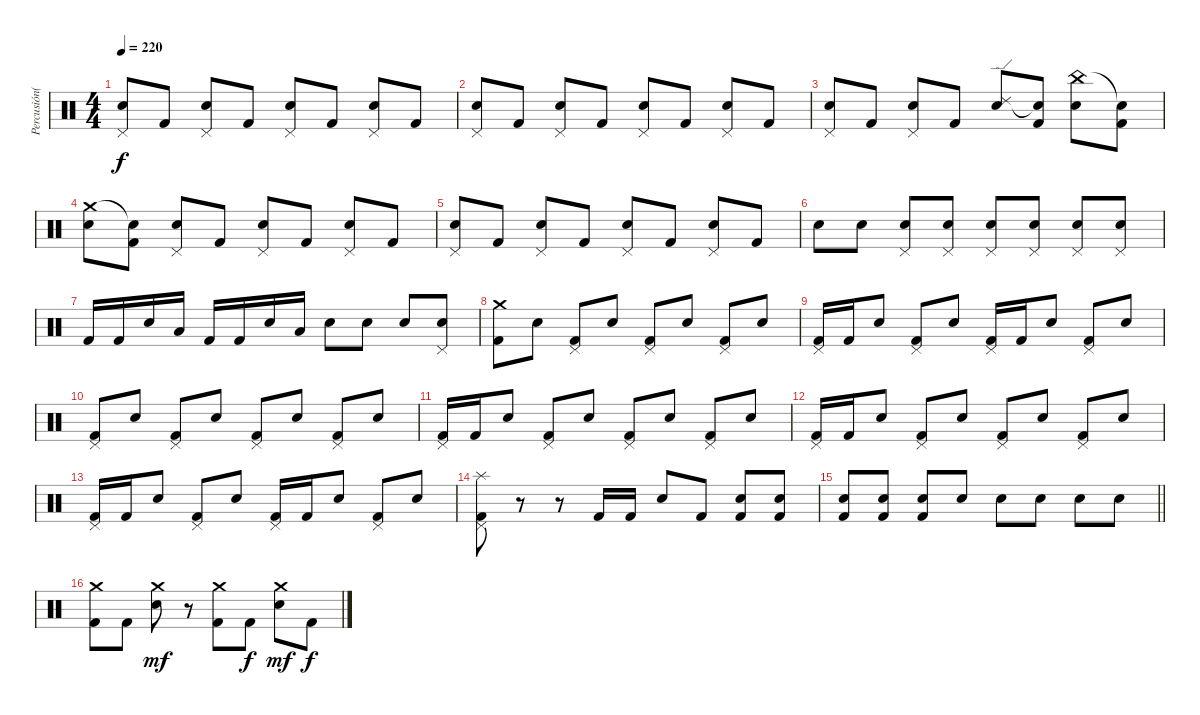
\track ("Percusión(Brett Powell)" "Percusión(") {instrument percussion}
\staff {score}
\articulation defaults
\ts (4 4)
\tempo 220
\clef neutral
\ks c
("Pedal Hi-Hat (hit)" "Electric Snare (hit)").8{dy f} "Kick (hit) 2".8 ("Pedal Hi-Hat (hit)" "Electric Snare (hit)").8 "Kick (hit) 2".8 ("Pedal Hi-Hat (hit)" "Electric Snare (hit)").8 "Kick (hit) 2".8 ("Pedal Hi-Hat (hit)" "Electric Snare (hit)").8 "Kick (hit) 2".8 |
("Pedal Hi-Hat (hit)" "Electric Snare (hit)").8 "Kick (hit) 2".8 ("Pedal Hi-Hat (hit)" "Electric Snare (hit)").8 "Kick (hit) 2".8 ("Pedal Hi-Hat (hit)" "Electric Snare (hit)").8 "Kick (hit) 2".8 ("Pedal Hi-Hat (hit)" "Electric Snare (hit)").8 "Kick (hit) 2".8 |
("Pedal Hi-Hat (hit)" "Electric Snare (hit)").8 "Kick (hit) 2".8 ("Pedal Hi-Hat (hit)" "Electric Snare (hit)").8 "Kick (hit) 2".8 ("Ride (edge) 2" "Electric Snare (hit)").8 ("Snare (hit)"{t} "Kick (hit) 2").8 ("China (hit)" "Electric Snare (hit)").8 ("Snare (hit)"{t} "Kick (hit) 2").8 |
("Crash medium (hit)" "Electric Snare (hit)").8 ("Snare (hit)"{t} "Kick (hit) 2").8 ("Pedal Hi-Hat (hit)" "Electric Snare (hit)").8 "Kick (hit) 2".8 ("Pedal Hi-Hat (hit)" "Electric Snare (hit)").8 "Kick (hit) 2".8 ("Pedal Hi-Hat (hit)" "Electric Snare (hit)").8 "Kick (hit) 2".8 |
("Pedal Hi-Hat (hit)" "Electric Snare (hit)").8 "Kick (hit) 2".8 ("Pedal Hi-Hat (hit)" "Electric Snare (hit)").8 "Kick (hit) 2".8 ("Pedal Hi-Hat (hit)" "Electric Snare (hit)").8 "Kick (hit) 2".8 ("Pedal Hi-Hat (hit)" "Electric Snare (hit)").8 "Kick (hit) 2".8 |
"Electric Snare (hit)".8 "Electric Snare (hit)".8 ("Pedal Hi-Hat (hit)" "Electric Snare (hit)").8 ("Pedal Hi-Hat (hit)" "Electric Snare (hit)").8 ("Pedal Hi-Hat (hit)" "Electric Snare (hit)").8 ("Pedal Hi-Hat (hit)" "Electric Snare (hit)").8 ("Pedal Hi-Hat (hit)" "Electric Snare (hit)").8 ("Pedal Hi-Hat (hit)" "Electric Snare (hit)").8 |
"Kick (hit) 2".16 "Kick (hit) 2".16 "Electric Snare (hit)".16 "Low Tom (hit)".16 "Kick (hit) 2".16 "Kick (hit) 2".16 "Electric Snare (hit)".16 "Low Tom (hit)".16 "Electric Snare (hit)".8 "Electric Snare (hit)".8 "Electric Snare (hit)".8 ("Pedal Hi-Hat (hit)" "Electric Snare (hit)").8 |
("Crash medium (hit)" "Kick (hit) 2").8 "Electric Snare (hit)".8 ("Pedal Hi-Hat (hit)" "Kick (hit) 2").8 "Electric Snare (hit)".8 ("Pedal Hi-Hat (hit)" "Kick (hit) 2").8 "Electric Snare (hit)".8 ("Pedal Hi-Hat (hit)" "Kick (hit) 2").8 "Electric Snare (hit)".8 |
("Pedal Hi-Hat (hit)" "Kick (hit) 2").16 "Kick (hit) 2".16 "Electric Snare (hit)".8 ("Pedal Hi-Hat (hit)" "Kick (hit) 2").8 "Electric Snare (hit)".8 ("Pedal Hi-Hat (hit)" "Kick (hit) 2").16 "Kick (hit) 2".16 "Electric Snare (hit)".8 ("Pedal Hi-Hat (hit)" "Kick (hit) 2").8 "Electric Snare (hit)".8 |
("Pedal Hi-Hat (hit)" "Kick (hit) 2").8 "Electric Snare (hit)".8 ("Pedal Hi-Hat (hit)" "Kick (hit) 2").8 "Electric Snare (hit)".8 ("Pedal Hi-Hat (hit)" "Kick (hit) 2").8 "Electric Snare (hit)".8 ("Pedal Hi-Hat (hit)" "Kick (hit) 2").8 "Electric Snare (hit)".8 |
("Pedal Hi-Hat (hit)" "Kick (hit) 2").16 "Kick (hit) 2".16 "Electric Snare (hit)".8 ("Pedal Hi-Hat (hit)" "Kick (hit) 2").8 "Electric Snare (hit)".8 ("Pedal Hi-Hat (hit)" "Kick (hit) 2").8 "Electric Snare (hit)".8 ("Pedal Hi-Hat (hit)" "Kick (hit) 2").8 "Electric Snare (hit)".8 |
("Pedal Hi-Hat (hit)" "Kick (hit) 2").16 "Kick (hit) 2".16 "Electric Snare (hit)".8 ("Pedal Hi-Hat (hit)" "Kick (hit) 2").8 "Electric Snare (hit)".8 ("Pedal Hi-Hat (hit)" "Kick (hit) 2").8 "Electric Snare (hit)".8 ("Pedal Hi-Hat (hit)" "Kick (hit) 2").8 "Electric Snare (hit)".8 |
("Pedal Hi-Hat (hit)" "Kick (hit) 2").16 "Kick (hit) 2".16 "Electric Snare (hit)".8 ("Pedal Hi-Hat (hit)" "Kick (hit) 2").8 "Electric Snare (hit)".8 ("Pedal Hi-Hat (hit)" "Kick (hit) 2").16 "Kick (hit) 2".16 "Electric Snare (hit)".8 ("Pedal Hi-Hat (hit)" "Kick (hit) 2").8 "Electric Snare (hit)".8 |
("Splash (hit)" "Pedal Hi-Hat (hit)" "Kick (hit) 2").8 r.8 r.8 "Kick (hit) 2".16 "Kick (hit) 2".16 "Electric Snare (hit)".8 "Kick (hit) 2".8 ("Electric Snare (hit)" "Kick (hit) 2").8 ("Electric Snare (hit)" "Kick (hit) 2").8 |
\barLineRight lightlight
("Electric Snare (hit)" "Kick (hit) 2").8 ("Electric Snare (hit)" "Kick (hit) 2").8 ("Electric Snare (hit)" "Kick (hit) 2").8 "Electric Snare (hit)".8 "Electric Snare (hit)".8 "Electric Snare (hit)".8 "Electric Snare (hit)".8 "Electric Snare (hit)".8 |
\section ("" "")
("Crash medium (hit)" "Kick (hit) 2").8 "Kick (hit) 2".8 ("Crash medium (hit)" "Electric Snare (hit)").8{dy mf} r.8 ("Crash medium (hit)" "Kick (hit) 2").8 "Kick (hit) 2".8{dy f} ("Crash medium (hit)" "Electric Snare (hit)").8{dy mf} "Kick (hit) 2".8{dy f}
